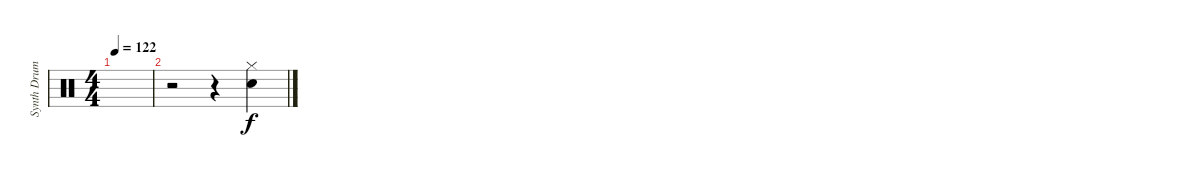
\track ("Synth Drums" "Synth Drum") {instrument percussion}
\staff {score}
\articulation defaults
\ts (4 4)
\tempo 122
\clef neutral
\ks c
|
r.2 r.4 ("Hi-Hat (closed)" "Snare (hit) 2").4
